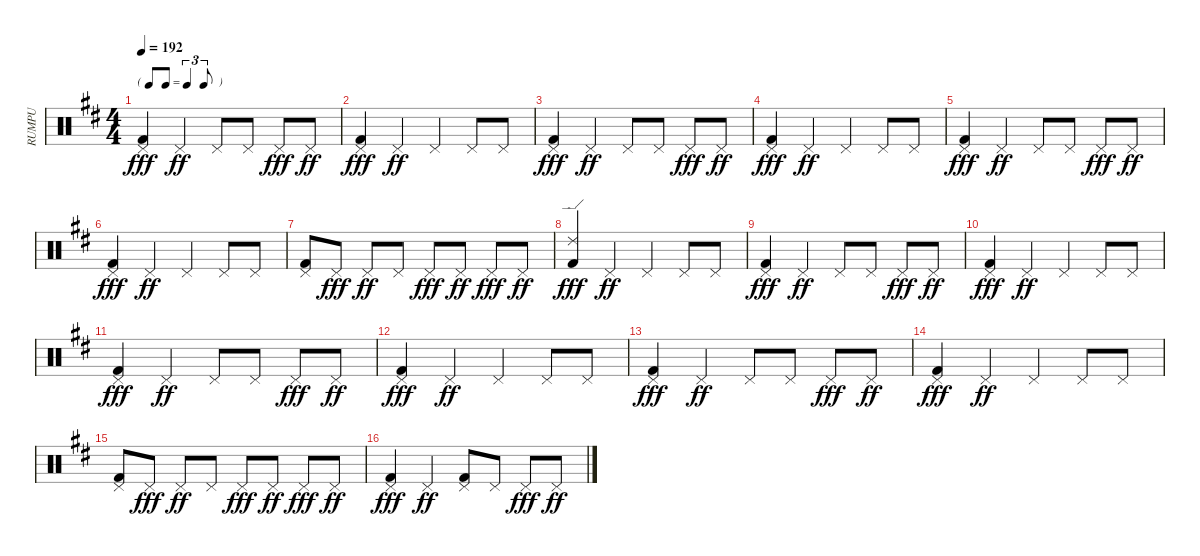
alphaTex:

\track ("RUMPU" "RUMPU") {instrument percussion}
\staff {score}
\articulation defaults
\ts (4 4)
\tf triplet8th
\tempo 192
\clef neutral
\ks d
("Pedal Hi-Hat (hit)" "Kick (hit) 2").4{dy fff} "Pedal Hi-Hat (hit)".4{dy ff} "Pedal Hi-Hat (hit)".8 "Pedal Hi-Hat (hit)".8 "Pedal Hi-Hat (hit)".8{dy fff} "Pedal Hi-Hat (hit)".8{dy ff} |
("Pedal Hi-Hat (hit)" "Kick (hit) 2").4{dy fff} "Pedal Hi-Hat (hit)".4{dy ff} "Pedal Hi-Hat (hit)".4 "Pedal Hi-Hat (hit)".8 "Pedal Hi-Hat (hit)".8 |
("Pedal Hi-Hat (hit)" "Kick (hit) 2").4{dy fff} "Pedal Hi-Hat (hit)".4{dy ff} "Pedal Hi-Hat (hit)".8 "Pedal Hi-Hat (hit)".8 "Pedal Hi-Hat (hit)".8{dy fff} "Pedal Hi-Hat (hit)".8{dy ff} |
("Pedal Hi-Hat (hit)" "Kick (hit) 2").4{dy fff} "Pedal Hi-Hat (hit)".4{dy ff} "Pedal Hi-Hat (hit)".4 "Pedal Hi-Hat (hit)".8 "Pedal Hi-Hat (hit)".8 |
("Pedal Hi-Hat (hit)" "Kick (hit) 2").4{dy fff} "Pedal Hi-Hat (hit)".4{dy ff} "Pedal Hi-Hat (hit)".8 "Pedal Hi-Hat (hit)".8 "Pedal Hi-Hat (hit)".8{dy fff} "Pedal Hi-Hat (hit)".8{dy ff} |
("Pedal Hi-Hat (hit)" "Kick (hit) 2").4{dy fff} "Pedal Hi-Hat (hit)".4{dy ff} "Pedal Hi-Hat (hit)".4 "Pedal Hi-Hat (hit)".8 "Pedal Hi-Hat (hit)".8 |
("Pedal Hi-Hat (hit)" "Kick (hit) 2").8 "Pedal Hi-Hat (hit)".8{dy fff} "Pedal Hi-Hat (hit)".8{dy ff} "Pedal Hi-Hat (hit)".8 "Pedal Hi-Hat (hit)".8{dy fff} "Pedal Hi-Hat (hit)".8{dy ff} "Pedal Hi-Hat (hit)".8{dy fff} "Pedal Hi-Hat (hit)".8{dy ff} |
("Ride (edge) 2" "Kick (hit) 2").4{dy fff} "Pedal Hi-Hat (hit)".4{dy ff} "Pedal Hi-Hat (hit)".4 "Pedal Hi-Hat (hit)".8 "Pedal Hi-Hat (hit)".8 |
("Pedal Hi-Hat (hit)" "Kick (hit) 2").4{dy fff} "Pedal Hi-Hat (hit)".4{dy ff} "Pedal Hi-Hat (hit)".8 "Pedal Hi-Hat (hit)".8 "Pedal Hi-Hat (hit)".8{dy fff} "Pedal Hi-Hat (hit)".8{dy ff} |
("Pedal Hi-Hat (hit)" "Kick (hit) 2").4{dy fff} "Pedal Hi-Hat (hit)".4{dy ff} "Pedal Hi-Hat (hit)".4 "Pedal Hi-Hat (hit)".8 "Pedal Hi-Hat (hit)".8 |
("Pedal Hi-Hat (hit)" "Kick (hit) 2").4{dy fff} "Pedal Hi-Hat (hit)".4{dy ff} "Pedal Hi-Hat (hit)".8 "Pedal Hi-Hat (hit)".8 "Pedal Hi-Hat (hit)".8{dy fff} "Pedal Hi-Hat (hit)".8{dy ff} |
("Pedal Hi-Hat (hit)" "Kick (hit) 2").4{dy fff} "Pedal Hi-Hat (hit)".4{dy ff} "Pedal Hi-Hat (hit)".4 "Pedal Hi-Hat (hit)".8 "Pedal Hi-Hat (hit)".8 |
("Pedal Hi-Hat (hit)" "Kick (hit) 2").4{dy fff} "Pedal Hi-Hat (hit)".4{dy ff} "Pedal Hi-Hat (hit)".8 "Pedal Hi-Hat (hit)".8 "Pedal Hi-Hat (hit)".8{dy fff} "Pedal Hi-Hat (hit)".8{dy ff} |
("Pedal Hi-Hat (hit)" "Kick (hit) 2").4{dy fff} "Pedal Hi-Hat (hit)".4{dy ff} "Pedal Hi-Hat (hit)".4 "Pedal Hi-Hat (hit)".8 "Pedal Hi-Hat (hit)".8 |
("Pedal Hi-Hat (hit)" "Kick (hit) 2").8 "Pedal Hi-Hat (hit)".8{dy fff} "Pedal Hi-Hat (hit)".8{dy ff} "Pedal Hi-Hat (hit)".8 "Pedal Hi-Hat (hit)".8{dy fff} "Pedal Hi-Hat (hit)".8{dy ff} "Pedal Hi-Hat (hit)".8{dy fff} "Pedal Hi-Hat (hit)".8{dy ff} |
("Pedal Hi-Hat (hit)" "Kick (hit) 2").4{dy fff} "Pedal Hi-Hat (hit)".4{dy ff} ("Pedal Hi-Hat (hit)" "Kick (hit) 2").8 "Pedal Hi-Hat (hit)".8 "Pedal Hi-Hat (hit)".8{dy fff} "Pedal Hi-Hat (hit)".8{dy ff}
